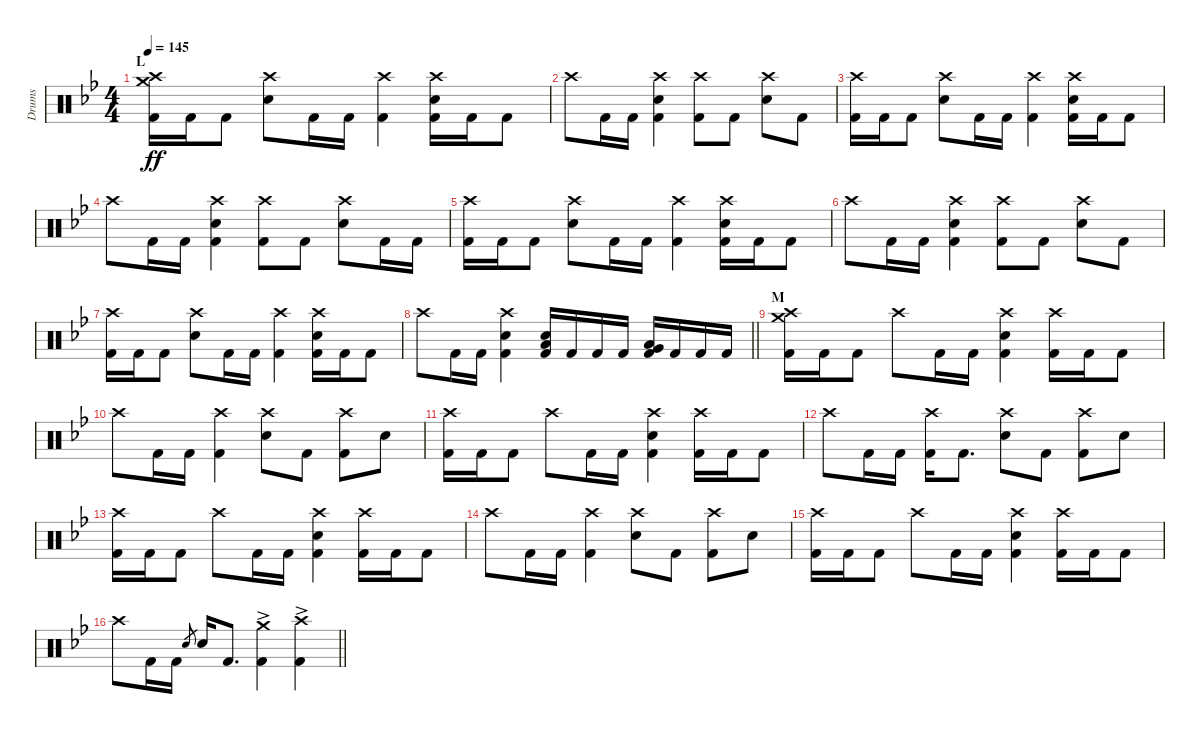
\track ("Drums" "Drums") {instrument percussion}
\staff {score}
\articulation defaults
\ts (4 4)
\section ("" "L")
\tempo 145
\clef neutral
\ks gminor
("Crash medium (hit)" "Crash high (hit)" "Kick (hit) 2").16{dy ff} "Kick (hit) 2".16 "Kick (hit) 2".8 ("Crash high (hit)" "Electric Snare (hit)").8 "Kick (hit) 2".16 "Kick (hit) 2".16 ("Crash high (hit)" "Kick (hit) 2").4 ("Crash high (hit)" "Electric Snare (hit)" "Kick (hit) 2").16 "Kick (hit) 2".16 "Kick (hit) 2".8 |
"Crash high (hit)".8 "Kick (hit) 2".16 "Kick (hit) 2".16 ("Crash high (hit)" "Electric Snare (hit)" "Kick (hit) 2").4 ("Crash high (hit)" "Kick (hit) 2").8 "Kick (hit) 2".8 ("Crash high (hit)" "Electric Snare (hit)").8 "Kick (hit) 2".8 |
("Crash high (hit)" "Kick (hit) 2").16 "Kick (hit) 2".16 "Kick (hit) 2".8 ("Crash high (hit)" "Electric Snare (hit)").8 "Kick (hit) 2".16 "Kick (hit) 2".16 ("Crash high (hit)" "Kick (hit) 2").4 ("Crash high (hit)" "Electric Snare (hit)" "Kick (hit) 2").16 "Kick (hit) 2".16 "Kick (hit) 2".8 |
"Crash high (hit)".8 "Kick (hit) 2".16 "Kick (hit) 2".16 ("Crash high (hit)" "Electric Snare (hit)" "Kick (hit) 2").4 ("Crash high (hit)" "Kick (hit) 2").8 "Kick (hit) 2".8 ("Crash high (hit)" "Electric Snare (hit)").8 "Kick (hit) 2".16 "Kick (hit) 2".16 |
("Crash high (hit)" "Kick (hit) 2").16 "Kick (hit) 2".16 "Kick (hit) 2".8 ("Crash high (hit)" "Electric Snare (hit)").8 "Kick (hit) 2".16 "Kick (hit) 2".16 ("Crash high (hit)" "Kick (hit) 2").4 ("Crash high (hit)" "Electric Snare (hit)" "Kick (hit) 2").16 "Kick (hit) 2".16 "Kick (hit) 2".8 |
"Crash high (hit)".8 "Kick (hit) 2".16 "Kick (hit) 2".16 ("Crash high (hit)" "Electric Snare (hit)" "Kick (hit) 2").4 ("Crash high (hit)" "Kick (hit) 2").8 "Kick (hit) 2".8 ("Crash high (hit)" "Electric Snare (hit)").8 "Kick (hit) 2".8 |
("Crash high (hit)" "Kick (hit) 2").16 "Kick (hit) 2".16 "Kick (hit) 2".8 ("Crash high (hit)" "Electric Snare (hit)").8 "Kick (hit) 2".16 "Kick (hit) 2".16 ("Crash high (hit)" "Kick (hit) 2").4 ("Crash high (hit)" "Electric Snare (hit)" "Kick (hit) 2").16 "Kick (hit) 2".16 "Kick (hit) 2".8 |
\barLineRight lightlight "Crash high (hit)".8 "Kick (hit) 2".16 "Kick (hit) 2".16
("Crash high (hit)" "Electric Snare (hit)" "Kick (hit) 2").4 ("Low Tom (hit)" "Electric Snare (hit)" "Kick (hit) 2").16 "Kick (hit) 2".16 "Kick (hit) 2".16 "Kick (hit) 2".16 ("Low Tom (hit)" "Very Low Tom (hit)" "Kick (hit) 2").16 "Kick (hit) 2".16 "Kick (hit) 2".16 "Kick (hit) 2".16 |
\section ("" "M")
("Crash medium (hit)" "Crash high (hit)" "Kick (hit) 2").16 "Kick (hit) 2".16 "Kick (hit) 2".8 "Crash high (hit)".8 "Kick (hit) 2".16 "Kick (hit) 2".16 ("Crash high (hit)" "Electric Snare (hit)" "Kick (hit) 2").4 ("Crash high (hit)" "Kick (hit) 2").16 "Kick (hit) 2".16 "Kick (hit) 2".8 |
"Crash high (hit)".8 "Kick (hit) 2".16 "Kick (hit) 2".16 ("Crash high (hit)" "Kick (hit) 2").4 ("Crash high (hit)" "Electric Snare (hit)").8 "Kick (hit) 2".8 ("Crash high (hit)" "Kick (hit) 2").8 "Electric Snare (hit)".8 |
("Crash high (hit)" "Kick (hit) 2").16 "Kick (hit) 2".16 "Kick (hit) 2".8 "Crash high (hit)".8 "Kick (hit) 2".16 "Kick (hit) 2".16 ("Crash high (hit)" "Electric Snare (hit)" "Kick (hit) 2").4 ("Crash high (hit)" "Kick (hit) 2").16 "Kick (hit) 2".16 "Kick (hit) 2".8 |
"Crash high (hit)".8 "Kick (hit) 2".16 "Kick (hit) 2".16 ("Crash high (hit)" "Kick (hit) 2").16 "Kick (hit) 2".8{d} ("Crash high (hit)" "Electric Snare (hit)").8 "Kick (hit) 2".8 ("Crash high (hit)" "Kick (hit) 2").8 "Electric Snare (hit)".8 |
("Crash high (hit)" "Kick (hit) 2").16 "Kick (hit) 2".16 "Kick (hit) 2".8 "Crash high (hit)".8 "Kick (hit) 2".16 "Kick (hit) 2".16 ("Crash high (hit)" "Electric Snare (hit)" "Kick (hit) 2").4 ("Crash high (hit)" "Kick (hit) 2").16 "Kick (hit) 2".16 "Kick (hit) 2".8 |
"Crash high (hit)".8 "Kick (hit) 2".16 "Kick (hit) 2".16 ("Crash high (hit)" "Kick (hit) 2").4 ("Crash high (hit)" "Electric Snare (hit)").8 "Kick (hit) 2".8 ("Crash high (hit)" "Kick (hit) 2").8 "Electric Snare (hit)".8 |
("Crash high (hit)" "Kick (hit) 2").16 "Kick (hit) 2".16 "Kick (hit) 2".8 "Crash high (hit)".8 "Kick (hit) 2".16 "Kick (hit) 2".16 ("Crash high (hit)" "Electric Snare (hit)" "Kick (hit) 2").4 ("Crash high (hit)" "Kick (hit) 2").16 "Kick (hit) 2".16 "Kick (hit) 2".8 |
\barLineRight lightlight "Crash high (hit)".8 "Kick (hit) 2".16 "Kick (hit) 2".16 "Electric Snare (hit)".8{gr} "Electric Snare (hit)".16 "Kick (hit) 2".8{d}
("Crash medium (hit)"{ac} "Kick (hit) 2").4 ("Crash high (hit)"{ac} "Kick (hit) 2").4
